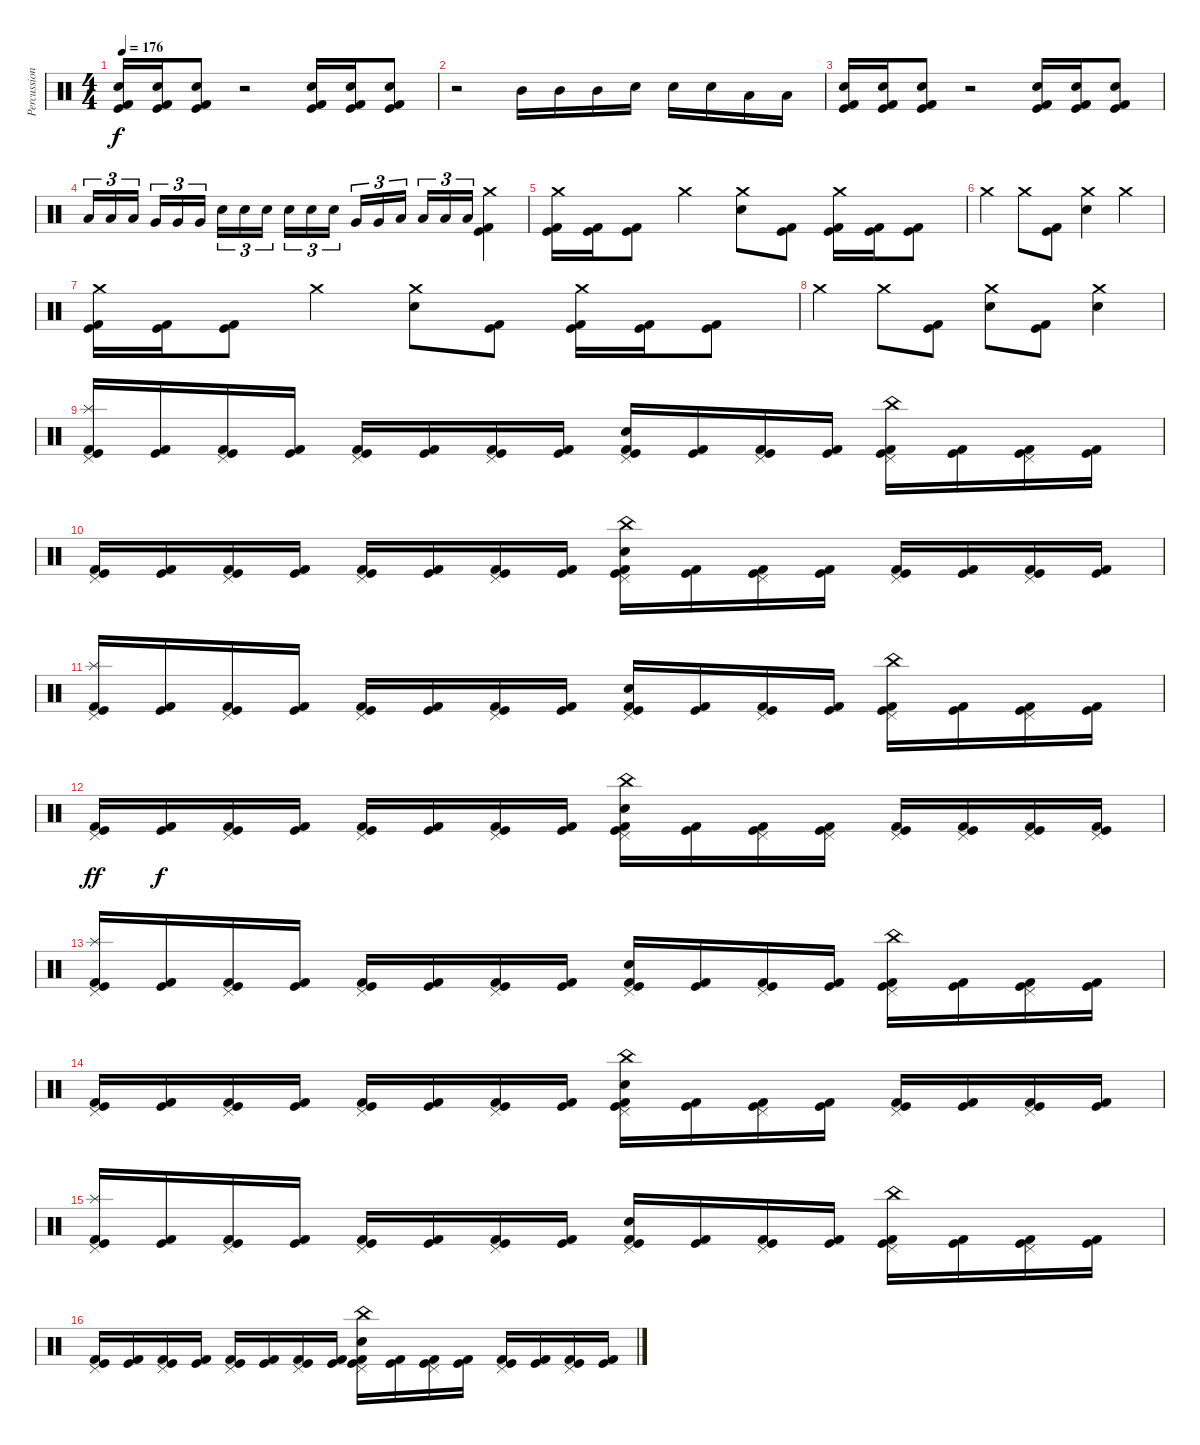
\track ("Percussions" "Percussion") {instrument percussion}
\staff {score}
\articulation defaults
\ts (4 4)
\tempo 176
\clef neutral
\ks c
("Electric Snare (hit)" "Kick (hit)" "Kick (hit) 2").16{dy f} ("Electric Snare (hit)" "Kick (hit)" "Kick (hit) 2").16 ("Electric Snare (hit)" "Kick (hit)" "Kick (hit) 2").8 r.2 ("Electric Snare (hit)" "Kick (hit)" "Kick (hit) 2").16 ("Electric Snare (hit)" "Kick (hit)" "Kick (hit) 2").16 ("Electric Snare (hit)" "Kick (hit)" "Kick (hit) 2").8 |
r.2 "Mid Tom (hit)".16 "Mid Tom (hit)".16 "Mid Tom (hit)".16 "Electric Snare (hit)".16 "Electric Snare (hit)".16 "Electric Snare (hit)".16 "Low Tom (hit)".16 "Low Tom (hit)".16 |
("Electric Snare (hit)" "Kick (hit)" "Kick (hit) 2").16 ("Electric Snare (hit)" "Kick (hit)" "Kick (hit) 2").16 ("Electric Snare (hit)" "Kick (hit)" "Kick (hit) 2").8 r.2 ("Electric Snare (hit)" "Kick (hit)" "Kick (hit) 2").16 ("Electric Snare (hit)" "Kick (hit)" "Kick (hit) 2").16 ("Electric Snare (hit)" "Kick (hit)" "Kick (hit) 2").8 |
"Low Tom (hit)".16{tu (3 2)} "Low Tom (hit)".16{tu (3 2)} "Low Tom (hit)".16{tu (3 2)} "Very Low Tom (hit)".16{tu (3 2)} "Very Low Tom (hit)".16{tu (3 2)} "Very Low Tom (hit)".16{tu (3 2)} "Electric Snare (hit)".16{tu (3 2)} "Electric Snare (hit)".16{tu (3 2)} "Electric Snare (hit)".16{tu (3 2)} "Electric Snare (hit)".16{tu (3 2)} "Electric Snare (hit)".16{tu (3 2)} "Electric Snare (hit)".16{tu (3 2)} "Very Low Tom (hit)".16{tu (3 2)} "Very Low Tom (hit)".16{tu (3 2)} "Low Tom (hit)".16{tu (3 2)} "Low Floor Tom (hit)".16{tu (3 2)} "Low Floor Tom (hit)".16{tu (3 2)} "Low Floor Tom (hit)".16{tu (3 2)} ("Crash medium (hit)" "Kick (hit)" "Kick (hit) 2").4 |
("Crash medium (hit)" "Kick (hit)" "Kick (hit) 2").16 ("Kick (hit)" "Kick (hit) 2").16 ("Kick (hit)" "Kick (hit) 2").8 "Crash medium (hit)".4 ("Crash medium (hit)" "Electric Snare (hit)").8 ("Kick (hit)" "Kick (hit) 2").8 ("Crash medium (hit)" "Kick (hit)" "Kick (hit) 2").16 ("Kick (hit)" "Kick (hit) 2").16 ("Kick (hit)" "Kick (hit) 2").8 |
"Crash medium (hit)".4 "Crash medium (hit)".8 ("Kick (hit)" "Kick (hit) 2").8 ("Crash medium (hit)" "Electric Snare (hit)").4 "Crash medium (hit)".4 |
("Crash medium (hit)" "Kick (hit)" "Kick (hit) 2").16 ("Kick (hit)" "Kick (hit) 2").16 ("Kick (hit)" "Kick (hit) 2").8 "Crash medium (hit)".4 ("Crash medium (hit)" "Electric Snare (hit)").8 ("Kick (hit)" "Kick (hit) 2").8 ("Crash medium (hit)" "Kick (hit)" "Kick (hit) 2").16 ("Kick (hit)" "Kick (hit) 2").16 ("Kick (hit)" "Kick (hit) 2").8 |
"Crash medium (hit)".4 "Crash medium (hit)".8 ("Kick (hit)" "Kick (hit) 2").8 ("Crash medium (hit)" "Electric Snare (hit)").8 ("Kick (hit)" "Kick (hit) 2").8 ("Crash medium (hit)" "Electric Snare (hit)").4 |
("Splash (hit)" "Pedal Hi-Hat (hit)" "Kick (hit)" "Kick (hit) 2").16 ("Kick (hit)" "Kick (hit) 2").16 ("Pedal Hi-Hat (hit)" "Kick (hit)" "Kick (hit) 2").16 ("Kick (hit)" "Kick (hit) 2").16 ("Pedal Hi-Hat (hit)" "Kick (hit)" "Kick (hit) 2").16 ("Kick (hit)" "Kick (hit) 2").16 ("Pedal Hi-Hat (hit)" "Kick (hit)" "Kick (hit) 2").16 ("Kick (hit)" "Kick (hit) 2").16 ("Pedal Hi-Hat (hit)" "Electric Snare (hit)" "Kick (hit)" "Kick (hit) 2").16 ("Kick (hit)" "Kick (hit) 2").16 ("Pedal Hi-Hat (hit)" "Kick (hit)" "Kick (hit) 2").16 ("Kick (hit)" "Kick (hit) 2").16 ("China (hit)" "Pedal Hi-Hat (hit)" "Kick (hit)" "Kick (hit) 2").16 ("Kick (hit)" "Kick (hit) 2").16 ("Pedal Hi-Hat (hit)" "Kick (hit)" "Kick (hit) 2").16 ("Kick (hit)" "Kick (hit) 2").16 |
("Pedal Hi-Hat (hit)" "Kick (hit)" "Kick (hit) 2").16 ("Kick (hit)" "Kick (hit) 2").16 ("Pedal Hi-Hat (hit)" "Kick (hit)" "Kick (hit) 2").16 ("Kick (hit)" "Kick (hit) 2").16 ("Pedal Hi-Hat (hit)" "Kick (hit)" "Kick (hit) 2").16 ("Kick (hit)" "Kick (hit) 2").16 ("Pedal Hi-Hat (hit)" "Kick (hit)" "Kick (hit) 2").16 ("Kick (hit)" "Kick (hit) 2").16 ("China (hit)" "Pedal Hi-Hat (hit)" "Electric Snare (hit)" "Kick (hit)" "Kick (hit) 2").16 ("Kick (hit)" "Kick (hit) 2").16 ("Pedal Hi-Hat (hit)" "Kick (hit)" "Kick (hit) 2").16 ("Kick (hit)" "Kick (hit) 2").16 ("Pedal Hi-Hat (hit)" "Kick (hit)" "Kick (hit) 2").16 ("Kick (hit)" "Kick (hit) 2").16 ("Pedal Hi-Hat (hit)" "Kick (hit)" "Kick (hit) 2").16 ("Kick (hit)" "Kick (hit) 2").16 |
("Splash (hit)" "Pedal Hi-Hat (hit)" "Kick (hit)" "Kick (hit) 2").16 ("Kick (hit)" "Kick (hit) 2").16 ("Pedal Hi-Hat (hit)" "Kick (hit)" "Kick (hit) 2").16 ("Kick (hit)" "Kick (hit) 2").16 ("Pedal Hi-Hat (hit)" "Kick (hit)" "Kick (hit) 2").16 ("Kick (hit)" "Kick (hit) 2").16 ("Pedal Hi-Hat (hit)" "Kick (hit)" "Kick (hit) 2").16 ("Kick (hit)" "Kick (hit) 2").16 ("Pedal Hi-Hat (hit)" "Electric Snare (hit)" "Kick (hit)" "Kick (hit) 2").16 ("Kick (hit)" "Kick (hit) 2").16 ("Pedal Hi-Hat (hit)" "Kick (hit)" "Kick (hit) 2").16 ("Kick (hit)" "Kick (hit) 2").16 ("China (hit)" "Pedal Hi-Hat (hit)" "Kick (hit)" "Kick (hit) 2").16 ("Kick (hit)" "Kick (hit) 2").16 ("Pedal Hi-Hat (hit)" "Kick (hit)" "Kick (hit) 2").16 ("Kick (hit)" "Kick (hit) 2").16 |
("Pedal Hi-Hat (hit)" "Kick (hit)" "Kick (hit) 2").16{dy ff} ("Kick (hit)" "Kick (hit) 2").16{dy f} ("Pedal Hi-Hat (hit)" "Kick (hit)" "Kick (hit) 2").16 ("Kick (hit)" "Kick (hit) 2").16 ("Pedal Hi-Hat (hit)" "Kick (hit)" "Kick (hit) 2").16 ("Kick (hit)" "Kick (hit) 2").16 ("Pedal Hi-Hat (hit)" "Kick (hit)" "Kick (hit) 2").16 ("Kick (hit)" "Kick (hit) 2").16 ("China (hit)" "Pedal Hi-Hat (hit)" "Electric Snare (hit)" "Kick (hit)" "Kick (hit) 2").16 ("Kick (hit)" "Kick (hit) 2").16 ("Pedal Hi-Hat (hit)" "Kick (hit)" "Kick (hit) 2").16 ("Pedal Hi-Hat (hit)" "Kick (hit)" "Kick (hit) 2").16 ("Pedal Hi-Hat (hit)" "Kick (hit)" "Kick (hit) 2").16 ("Pedal Hi-Hat (hit)" "Kick (hit)" "Kick (hit) 2").16 ("Pedal Hi-Hat (hit)" "Kick (hit)" "Kick (hit) 2").16 ("Pedal Hi-Hat (hit)" "Kick (hit)" "Kick (hit) 2").16 |
("Splash (hit)" "Pedal Hi-Hat (hit)" "Kick (hit)" "Kick (hit) 2").16 ("Kick (hit)" "Kick (hit) 2").16 ("Pedal Hi-Hat (hit)" "Kick (hit)" "Kick (hit) 2").16 ("Kick (hit)" "Kick (hit) 2").16 ("Pedal Hi-Hat (hit)" "Kick (hit)" "Kick (hit) 2").16 ("Kick (hit)" "Kick (hit) 2").16 ("Pedal Hi-Hat (hit)" "Kick (hit)" "Kick (hit) 2").16 ("Kick (hit)" "Kick (hit) 2").16 ("Pedal Hi-Hat (hit)" "Electric Snare (hit)" "Kick (hit)" "Kick (hit) 2").16 ("Kick (hit)" "Kick (hit) 2").16 ("Pedal Hi-Hat (hit)" "Kick (hit)" "Kick (hit) 2").16 ("Kick (hit)" "Kick (hit) 2").16 ("China (hit)" "Pedal Hi-Hat (hit)" "Kick (hit)" "Kick (hit) 2").16 ("Kick (hit)" "Kick (hit) 2").16 ("Pedal Hi-Hat (hit)" "Kick (hit)" "Kick (hit) 2").16 ("Kick (hit)" "Kick (hit) 2").16 |
("Pedal Hi-Hat (hit)" "Kick (hit)" "Kick (hit) 2").16 ("Kick (hit)" "Kick (hit) 2").16 ("Pedal Hi-Hat (hit)" "Kick (hit)" "Kick (hit) 2").16 ("Kick (hit)" "Kick (hit) 2").16 ("Pedal Hi-Hat (hit)" "Kick (hit)" "Kick (hit) 2").16 ("Kick (hit)" "Kick (hit) 2").16 ("Pedal Hi-Hat (hit)" "Kick (hit)" "Kick (hit) 2").16 ("Kick (hit)" "Kick (hit) 2").16 ("China (hit)" "Pedal Hi-Hat (hit)" "Electric Snare (hit)" "Kick (hit)" "Kick (hit) 2").16 ("Kick (hit)" "Kick (hit) 2").16 ("Pedal Hi-Hat (hit)" "Kick (hit)" "Kick (hit) 2").16 ("Kick (hit)" "Kick (hit) 2").16 ("Pedal Hi-Hat (hit)" "Kick (hit)" "Kick (hit) 2").16 ("Kick (hit)" "Kick (hit) 2").16 ("Pedal Hi-Hat (hit)" "Kick (hit)" "Kick (hit) 2").16 ("Kick (hit)" "Kick (hit) 2").16 |
("Splash (hit)" "Pedal Hi-Hat (hit)" "Kick (hit)" "Kick (hit) 2").16 ("Kick (hit)" "Kick (hit) 2").16 ("Pedal Hi-Hat (hit)" "Kick (hit)" "Kick (hit) 2").16 ("Kick (hit)" "Kick (hit) 2").16 ("Pedal Hi-Hat (hit)" "Kick (hit)" "Kick (hit) 2").16 ("Kick (hit)" "Kick (hit) 2").16 ("Pedal Hi-Hat (hit)" "Kick (hit)" "Kick (hit) 2").16 ("Kick (hit)" "Kick (hit) 2").16 ("Pedal Hi-Hat (hit)" "Electric Snare (hit)" "Kick (hit)" "Kick (hit) 2").16 ("Kick (hit)" "Kick (hit) 2").16 ("Pedal Hi-Hat (hit)" "Kick (hit)" "Kick (hit) 2").16 ("Kick (hit)" "Kick (hit) 2").16 ("China (hit)" "Pedal Hi-Hat (hit)" "Kick (hit)" "Kick (hit) 2").16 ("Kick (hit)" "Kick (hit) 2").16 ("Pedal Hi-Hat (hit)" "Kick (hit)" "Kick (hit) 2").16 ("Kick (hit)" "Kick (hit) 2").16 |
("Pedal Hi-Hat (hit)" "Kick (hit)" "Kick (hit) 2").16 ("Kick (hit)" "Kick (hit) 2").16 ("Pedal Hi-Hat (hit)" "Kick (hit)" "Kick (hit) 2").16 ("Kick (hit)" "Kick (hit) 2").16 ("Pedal Hi-Hat (hit)" "Kick (hit)" "Kick (hit) 2").16 ("Kick (hit)" "Kick (hit) 2").16 ("Pedal Hi-Hat (hit)" "Kick (hit)" "Kick (hit) 2").16 ("Kick (hit)" "Kick (hit) 2").16 ("China (hit)" "Pedal Hi-Hat (hit)" "Electric Snare (hit)" "Kick (hit)" "Kick (hit) 2").16 ("Kick (hit)" "Kick (hit) 2").16 ("Pedal Hi-Hat (hit)" "Kick (hit)" "Kick (hit) 2").16 ("Kick (hit)" "Kick (hit) 2").16 ("Pedal Hi-Hat (hit)" "Kick (hit)" "Kick (hit) 2").16 ("Kick (hit)" "Kick (hit) 2").16 ("Pedal Hi-Hat (hit)" "Kick (hit)" "Kick (hit) 2").16 ("Kick (hit)" "Kick (hit) 2").16
